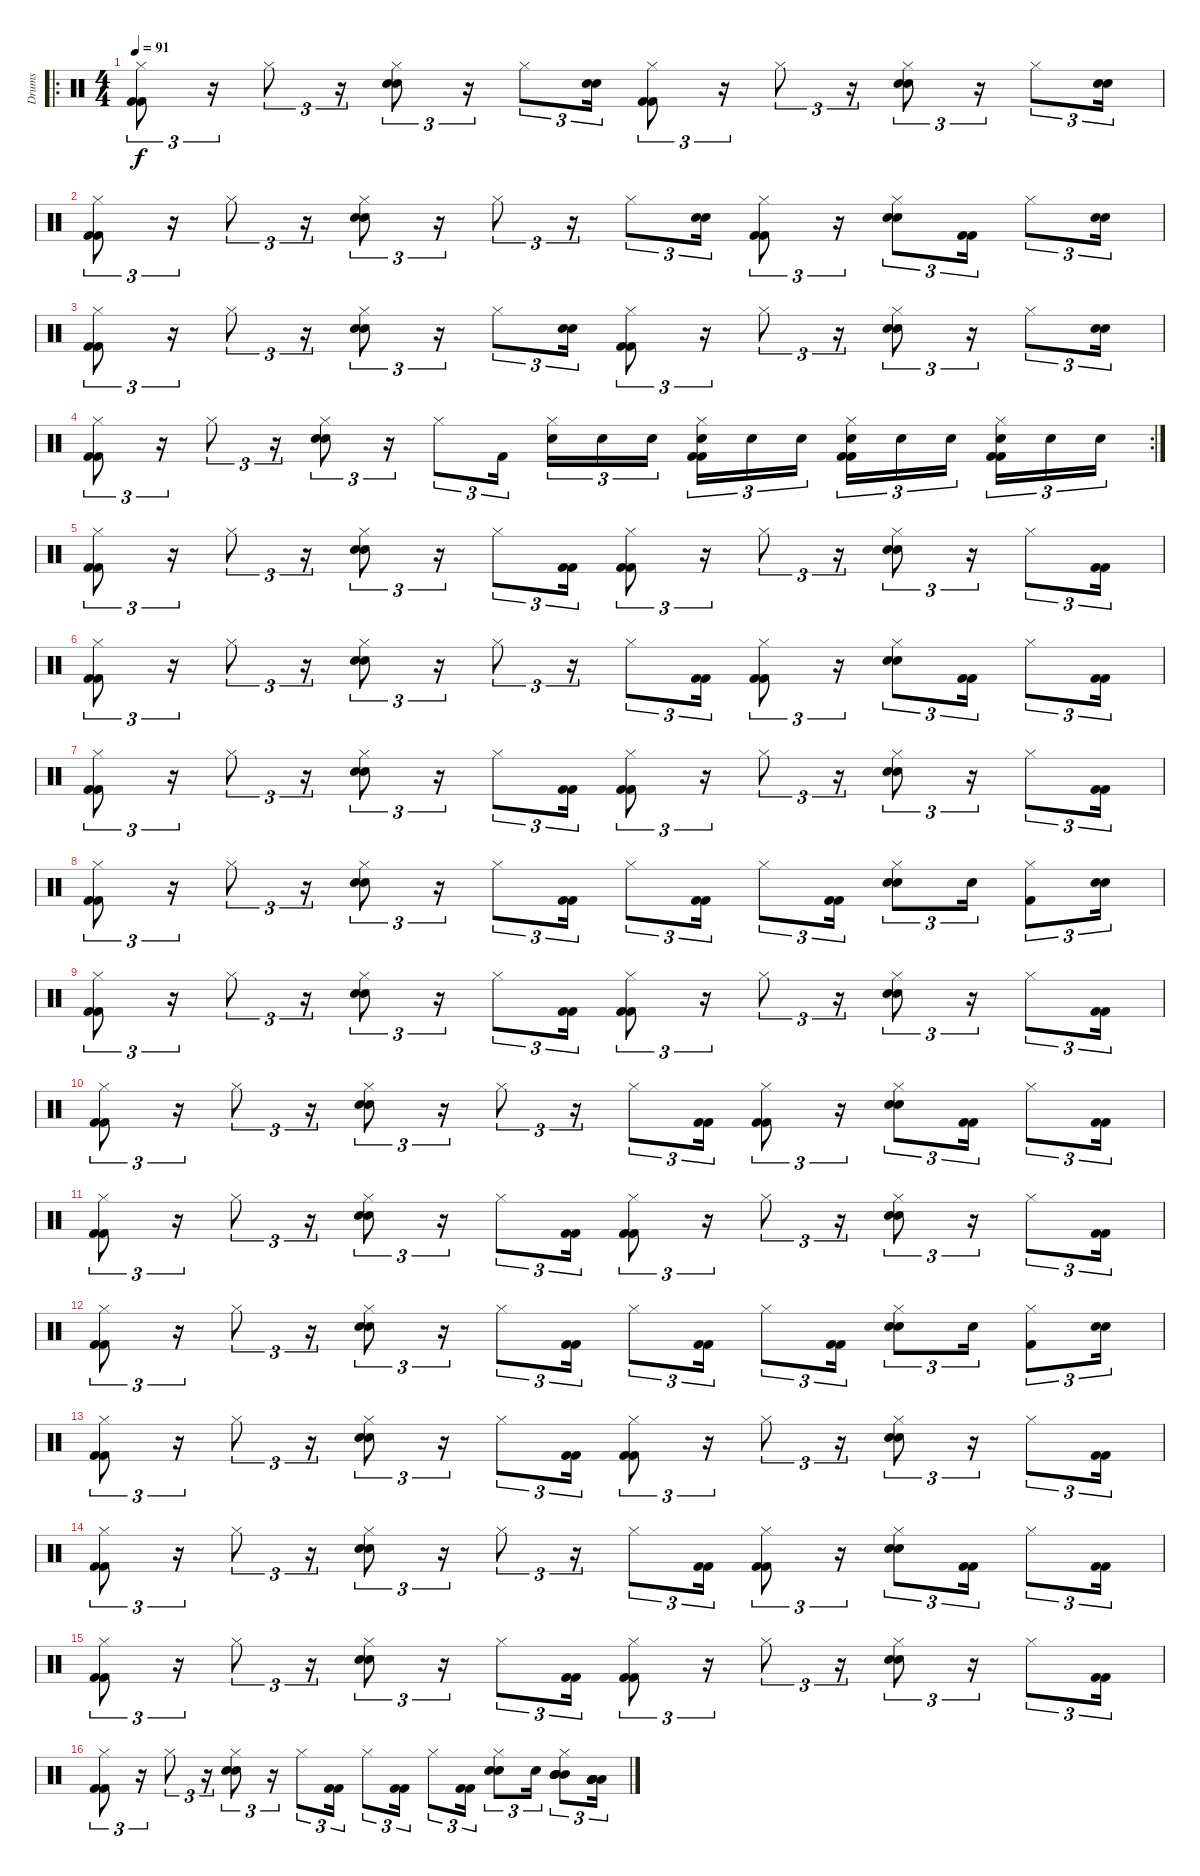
\track ("Drums" "Drums") {instrument percussion}
\staff {score}
\articulation defaults
\ro
\ts (4 4)
\tempo 91
\clef neutral
\ks c
("Hi-Hat (closed)" "Kick (hit) 2" "Kick (hit) 2").8{tu (3 2) dy f} r.16{tu (3 2)} "Hi-Hat (closed)".8{tu (3 2)} r.16{tu (3 2)} ("Hi-Hat (closed)" "Electric Snare (hit)" "Electric Snare (hit)").8{tu (3 2)} r.16{tu (3 2)} "Hi-Hat (closed)".8{tu (3 2)} ("Electric Snare (hit)" "Electric Snare (hit)").16{tu (3 2)} ("Hi-Hat (closed)" "Kick (hit) 2" "Kick (hit) 2").8{tu (3 2)} r.16{tu (3 2)} "Hi-Hat (closed)".8{tu (3 2)} r.16{tu (3 2)} ("Hi-Hat (closed)" "Electric Snare (hit)" "Electric Snare (hit)").8{tu (3 2)} r.16{tu (3 2)} "Hi-Hat (closed)".8{tu (3 2)} ("Electric Snare (hit)" "Electric Snare (hit)").16{tu (3 2)} |
("Hi-Hat (closed)" "Kick (hit) 2" "Kick (hit) 2").8{tu (3 2)} r.16{tu (3 2)} "Hi-Hat (closed)".8{tu (3 2)} r.16{tu (3 2)} ("Hi-Hat (closed)" "Electric Snare (hit)" "Electric Snare (hit)").8{tu (3 2)} r.16{tu (3 2)} "Hi-Hat (closed)".8{tu (3 2)} r.16{tu (3 2)} "Hi-Hat (closed)".8{tu (3 2)} ("Electric Snare (hit)" "Electric Snare (hit)").16{tu (3 2)} ("Hi-Hat (closed)" "Kick (hit) 2" "Kick (hit) 2").8{tu (3 2)} r.16{tu (3 2)} ("Hi-Hat (closed)" "Electric Snare (hit)" "Electric Snare (hit)").8{tu (3 2)} ("Kick (hit) 2" "Kick (hit) 2").16{tu (3 2)} "Hi-Hat (closed)".8{tu (3 2)} ("Electric Snare (hit)" "Electric Snare (hit)").16{tu (3 2)} |
("Hi-Hat (closed)" "Kick (hit) 2" "Kick (hit) 2").8{tu (3 2)} r.16{tu (3 2)} "Hi-Hat (closed)".8{tu (3 2)} r.16{tu (3 2)} ("Hi-Hat (closed)" "Electric Snare (hit)" "Electric Snare (hit)").8{tu (3 2)} r.16{tu (3 2)} "Hi-Hat (closed)".8{tu (3 2)} ("Electric Snare (hit)" "Electric Snare (hit)").16{tu (3 2)} ("Hi-Hat (closed)" "Kick (hit) 2" "Kick (hit) 2").8{tu (3 2)} r.16{tu (3 2)} "Hi-Hat (closed)".8{tu (3 2)} r.16{tu (3 2)} ("Hi-Hat (closed)" "Electric Snare (hit)" "Electric Snare (hit)").8{tu (3 2)} r.16{tu (3 2)} "Hi-Hat (closed)".8{tu (3 2)} ("Electric Snare (hit)" "Electric Snare (hit)").16{tu (3 2)} |
\rc 2
("Hi-Hat (closed)" "Kick (hit) 2" "Kick (hit) 2").8{tu (3 2)} r.16{tu (3 2)} "Hi-Hat (closed)".8{tu (3 2)} r.16{tu (3 2)} ("Hi-Hat (closed)" "Electric Snare (hit)" "Electric Snare (hit)").8{tu (3 2)} r.16{tu (3 2)} "Hi-Hat (closed)".8{tu (3 2)} "Kick (hit) 2".16{tu (3 2)} ("Hi-Hat (closed)" "Electric Snare (hit)").16{tu (3 2)} "Electric Snare (hit)".16{tu (3 2)} "Electric Snare (hit)".16{tu (3 2)} ("Hi-Hat (closed)" "Electric Snare (hit)" "Kick (hit) 2" "Kick (hit) 2").16{tu (3 2)} "Electric Snare (hit)".16{tu (3 2)} "Electric Snare (hit)".16{tu (3 2)} ("Hi-Hat (closed)" "Electric Snare (hit)" "Kick (hit) 2" "Kick (hit) 2").16{tu (3 2)} "Electric Snare (hit)".16{tu (3 2)} "Electric Snare (hit)".16{tu (3 2)} ("Hi-Hat (closed)" "Electric Snare (hit)" "Kick (hit) 2" "Kick (hit) 2").16{tu (3 2)} "Electric Snare (hit)".16{tu (3 2)} "Electric Snare (hit)".16{tu (3 2)} |
("Hi-Hat (closed)" "Kick (hit) 2" "Kick (hit) 2").8{tu (3 2)} r.16{tu (3 2)} "Hi-Hat (closed)".8{tu (3 2)} r.16{tu (3 2)} ("Hi-Hat (closed)" "Electric Snare (hit)" "Electric Snare (hit)").8{tu (3 2)} r.16{tu (3 2)} "Hi-Hat (closed)".8{tu (3 2)} ("Kick (hit) 2" "Kick (hit) 2").16{tu (3 2)} ("Hi-Hat (closed)" "Kick (hit) 2" "Kick (hit) 2").8{tu (3 2)} r.16{tu (3 2)} "Hi-Hat (closed)".8{tu (3 2)} r.16{tu (3 2)} ("Hi-Hat (closed)" "Electric Snare (hit)" "Electric Snare (hit)").8{tu (3 2)} r.16{tu (3 2)} "Hi-Hat (closed)".8{tu (3 2)} ("Kick (hit) 2" "Kick (hit) 2").16{tu (3 2)} |
("Hi-Hat (closed)" "Kick (hit) 2" "Kick (hit) 2").8{tu (3 2)} r.16{tu (3 2)} "Hi-Hat (closed)".8{tu (3 2)} r.16{tu (3 2)} ("Hi-Hat (closed)" "Electric Snare (hit)" "Electric Snare (hit)").8{tu (3 2)} r.16{tu (3 2)} "Hi-Hat (closed)".8{tu (3 2)} r.16{tu (3 2)} "Hi-Hat (closed)".8{tu (3 2)} ("Kick (hit) 2" "Kick (hit) 2").16{tu (3 2)} ("Hi-Hat (closed)" "Kick (hit) 2" "Kick (hit) 2").8{tu (3 2)} r.16{tu (3 2)} ("Hi-Hat (closed)" "Electric Snare (hit)" "Electric Snare (hit)").8{tu (3 2)} ("Kick (hit) 2" "Kick (hit) 2").16{tu (3 2)} "Hi-Hat (closed)".8{tu (3 2)} ("Kick (hit) 2" "Kick (hit) 2").16{tu (3 2)} |
("Hi-Hat (closed)" "Kick (hit) 2" "Kick (hit) 2").8{tu (3 2)} r.16{tu (3 2)} "Hi-Hat (closed)".8{tu (3 2)} r.16{tu (3 2)} ("Hi-Hat (closed)" "Electric Snare (hit)" "Electric Snare (hit)").8{tu (3 2)} r.16{tu (3 2)} "Hi-Hat (closed)".8{tu (3 2)} ("Kick (hit) 2" "Kick (hit) 2").16{tu (3 2)} ("Hi-Hat (closed)" "Kick (hit) 2" "Kick (hit) 2").8{tu (3 2)} r.16{tu (3 2)} "Hi-Hat (closed)".8{tu (3 2)} r.16{tu (3 2)} ("Hi-Hat (closed)" "Electric Snare (hit)" "Electric Snare (hit)").8{tu (3 2)} r.16{tu (3 2)} "Hi-Hat (closed)".8{tu (3 2)} ("Kick (hit) 2" "Kick (hit) 2").16{tu (3 2)} |
("Hi-Hat (closed)" "Kick (hit) 2" "Kick (hit) 2").8{tu (3 2)} r.16{tu (3 2)} "Hi-Hat (closed)".8{tu (3 2)} r.16{tu (3 2)} ("Hi-Hat (closed)" "Electric Snare (hit)" "Electric Snare (hit)").8{tu (3 2)} r.16{tu (3 2)} "Hi-Hat (closed)".8{tu (3 2)} ("Kick (hit) 2" "Kick (hit) 2").16{tu (3 2)} "Hi-Hat (closed)".8{tu (3 2)} ("Kick (hit) 2" "Kick (hit) 2").16{tu (3 2)} "Hi-Hat (closed)".8{tu (3 2)} ("Kick (hit) 2" "Kick (hit) 2").16{tu (3 2)} ("Hi-Hat (closed)" "Electric Snare (hit)" "Electric Snare (hit)").8{tu (3 2)} "Electric Snare (hit)".16{tu (3 2)} ("Hi-Hat (closed)" "Kick (hit) 2").8{tu (3 2)} ("Electric Snare (hit)" "Electric Snare (hit)").16{tu (3 2)} |
("Hi-Hat (closed)" "Kick (hit) 2" "Kick (hit) 2").8{tu (3 2)} r.16{tu (3 2)} "Hi-Hat (closed)".8{tu (3 2)} r.16{tu (3 2)} ("Hi-Hat (closed)" "Electric Snare (hit)" "Electric Snare (hit)").8{tu (3 2)} r.16{tu (3 2)} "Hi-Hat (closed)".8{tu (3 2)} ("Kick (hit) 2" "Kick (hit) 2").16{tu (3 2)} ("Hi-Hat (closed)" "Kick (hit) 2" "Kick (hit) 2").8{tu (3 2)} r.16{tu (3 2)} "Hi-Hat (closed)".8{tu (3 2)} r.16{tu (3 2)} ("Hi-Hat (closed)" "Electric Snare (hit)" "Electric Snare (hit)").8{tu (3 2)} r.16{tu (3 2)} "Hi-Hat (closed)".8{tu (3 2)} ("Kick (hit) 2" "Kick (hit) 2").16{tu (3 2)} |
("Hi-Hat (closed)" "Kick (hit) 2" "Kick (hit) 2").8{tu (3 2)} r.16{tu (3 2)} "Hi-Hat (closed)".8{tu (3 2)} r.16{tu (3 2)} ("Hi-Hat (closed)" "Electric Snare (hit)" "Electric Snare (hit)").8{tu (3 2)} r.16{tu (3 2)} "Hi-Hat (closed)".8{tu (3 2)} r.16{tu (3 2)} "Hi-Hat (closed)".8{tu (3 2)} ("Kick (hit) 2" "Kick (hit) 2").16{tu (3 2)} ("Hi-Hat (closed)" "Kick (hit) 2" "Kick (hit) 2").8{tu (3 2)} r.16{tu (3 2)} ("Hi-Hat (closed)" "Electric Snare (hit)" "Electric Snare (hit)").8{tu (3 2)} ("Kick (hit) 2" "Kick (hit) 2").16{tu (3 2)} "Hi-Hat (closed)".8{tu (3 2)} ("Kick (hit) 2" "Kick (hit) 2").16{tu (3 2)} |
("Hi-Hat (closed)" "Kick (hit) 2" "Kick (hit) 2").8{tu (3 2)} r.16{tu (3 2)} "Hi-Hat (closed)".8{tu (3 2)} r.16{tu (3 2)} ("Hi-Hat (closed)" "Electric Snare (hit)" "Electric Snare (hit)").8{tu (3 2)} r.16{tu (3 2)} "Hi-Hat (closed)".8{tu (3 2)} ("Kick (hit) 2" "Kick (hit) 2").16{tu (3 2)} ("Hi-Hat (closed)" "Kick (hit) 2" "Kick (hit) 2").8{tu (3 2)} r.16{tu (3 2)} "Hi-Hat (closed)".8{tu (3 2)} r.16{tu (3 2)} ("Hi-Hat (closed)" "Electric Snare (hit)" "Electric Snare (hit)").8{tu (3 2)} r.16{tu (3 2)} "Hi-Hat (closed)".8{tu (3 2)} ("Kick (hit) 2" "Kick (hit) 2").16{tu (3 2)} |
("Hi-Hat (closed)" "Kick (hit) 2" "Kick (hit) 2").8{tu (3 2)} r.16{tu (3 2)} "Hi-Hat (closed)".8{tu (3 2)} r.16{tu (3 2)} ("Hi-Hat (closed)" "Electric Snare (hit)" "Electric Snare (hit)").8{tu (3 2)} r.16{tu (3 2)} "Hi-Hat (closed)".8{tu (3 2)} ("Kick (hit) 2" "Kick (hit) 2").16{tu (3 2)} "Hi-Hat (closed)".8{tu (3 2)} ("Kick (hit) 2" "Kick (hit) 2").16{tu (3 2)} "Hi-Hat (closed)".8{tu (3 2)} ("Kick (hit) 2" "Kick (hit) 2").16{tu (3 2)} ("Hi-Hat (closed)" "Electric Snare (hit)" "Electric Snare (hit)").8{tu (3 2)} "Electric Snare (hit)".16{tu (3 2)} ("Hi-Hat (closed)" "Kick (hit) 2").8{tu (3 2)} ("Electric Snare (hit)" "Electric Snare (hit)").16{tu (3 2)} |
("Hi-Hat (closed)" "Kick (hit) 2" "Kick (hit) 2").8{tu (3 2)} r.16{tu (3 2)} "Hi-Hat (closed)".8{tu (3 2)} r.16{tu (3 2)} ("Hi-Hat (closed)" "Electric Snare (hit)" "Electric Snare (hit)").8{tu (3 2)} r.16{tu (3 2)} "Hi-Hat (closed)".8{tu (3 2)} ("Kick (hit) 2" "Kick (hit) 2").16{tu (3 2)} ("Hi-Hat (closed)" "Kick (hit) 2" "Kick (hit) 2").8{tu (3 2)} r.16{tu (3 2)} "Hi-Hat (closed)".8{tu (3 2)} r.16{tu (3 2)} ("Hi-Hat (closed)" "Electric Snare (hit)" "Electric Snare (hit)").8{tu (3 2)} r.16{tu (3 2)} "Hi-Hat (closed)".8{tu (3 2)} ("Kick (hit) 2" "Kick (hit) 2").16{tu (3 2)} |
("Hi-Hat (closed)" "Kick (hit) 2" "Kick (hit) 2").8{tu (3 2)} r.16{tu (3 2)} "Hi-Hat (closed)".8{tu (3 2)} r.16{tu (3 2)} ("Hi-Hat (closed)" "Electric Snare (hit)" "Electric Snare (hit)").8{tu (3 2)} r.16{tu (3 2)} "Hi-Hat (closed)".8{tu (3 2)} r.16{tu (3 2)} "Hi-Hat (closed)".8{tu (3 2)} ("Kick (hit) 2" "Kick (hit) 2").16{tu (3 2)} ("Hi-Hat (closed)" "Kick (hit) 2" "Kick (hit) 2").8{tu (3 2)} r.16{tu (3 2)} ("Hi-Hat (closed)" "Electric Snare (hit)" "Electric Snare (hit)").8{tu (3 2)} ("Kick (hit) 2" "Kick (hit) 2").16{tu (3 2)} "Hi-Hat (closed)".8{tu (3 2)} ("Kick (hit) 2" "Kick (hit) 2").16{tu (3 2)} |
("Hi-Hat (closed)" "Kick (hit) 2" "Kick (hit) 2").8{tu (3 2)} r.16{tu (3 2)} "Hi-Hat (closed)".8{tu (3 2)} r.16{tu (3 2)} ("Hi-Hat (closed)" "Electric Snare (hit)" "Electric Snare (hit)").8{tu (3 2)} r.16{tu (3 2)} "Hi-Hat (closed)".8{tu (3 2)} ("Kick (hit) 2" "Kick (hit) 2").16{tu (3 2)} ("Hi-Hat (closed)" "Kick (hit) 2" "Kick (hit) 2").8{tu (3 2)} r.16{tu (3 2)} "Hi-Hat (closed)".8{tu (3 2)} r.16{tu (3 2)} ("Hi-Hat (closed)" "Electric Snare (hit)" "Electric Snare (hit)").8{tu (3 2)} r.16{tu (3 2)} "Hi-Hat (closed)".8{tu (3 2)} ("Kick (hit) 2" "Kick (hit) 2").16{tu (3 2)} |
("Hi-Hat (closed)" "Kick (hit) 2" "Kick (hit) 2").8{tu (3 2)} r.16{tu (3 2)} "Hi-Hat (closed)".8{tu (3 2)} r.16{tu (3 2)} ("Hi-Hat (closed)" "Electric Snare (hit)" "Electric Snare (hit)").8{tu (3 2)} r.16{tu (3 2)} "Hi-Hat (closed)".8{tu (3 2)} ("Kick (hit) 2" "Kick (hit) 2").16{tu (3 2)} "Hi-Hat (closed)".8{tu (3 2)} ("Kick (hit) 2" "Kick (hit) 2").16{tu (3 2)} "Hi-Hat (closed)".8{tu (3 2)} ("Kick (hit) 2" "Kick (hit) 2").16{tu (3 2)} ("Hi-Hat (closed)" "Electric Snare (hit)" "Electric Snare (hit)").8{tu (3 2)} "Electric Snare (hit)".16{tu (3 2)} ("Hi-Hat (closed)" "Mid Tom (hit)" "Mid Tom (hit)" "Mid Tom (hit)" "Mid Tom (hit)" "Mid Tom (hit)").8{tu (3 2)} ("Low Tom (hit)" "Low Tom (hit)" "Low Tom (hit)" "Low Tom (hit)" "Low Tom (hit)").16{tu (3 2)}
